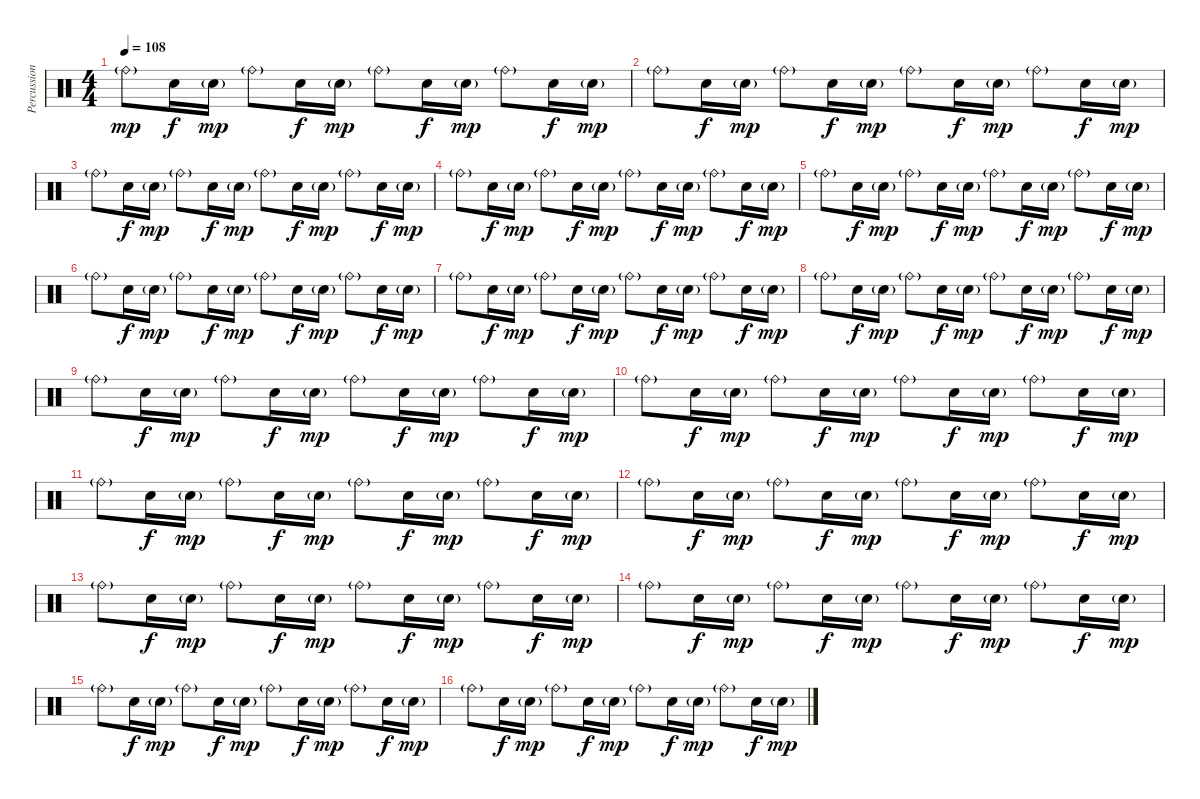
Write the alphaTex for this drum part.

\track ("Percussioni" "Percussion") {instrument percussion}
\staff {score}
\articulation defaults
\ts (4 4)
\tempo 108
\clef neutral
\ks c "Ride (bell)"{g}.8{dy mp} "Snare (hit) 2".16{dy f} "Snare (hit) 2"{g}.16{dy mp} "Ride (bell)"{g}.8 "Snare (hit) 2".16{dy f} "Snare (hit) 2"{g}.16{dy mp} "Ride (bell)"{g}.8 "Snare (hit) 2".16{dy f} "Snare (hit) 2"{g}.16{dy mp} "Ride (bell)"{g}.8 "Snare (hit) 2".16{dy f} "Snare (hit) 2"{g}.16{dy mp}
|
"Ride (bell)"{g}.8 "Snare (hit) 2".16{dy f} "Snare (hit) 2"{g}.16{dy mp} "Ride (bell)"{g}.8 "Snare (hit) 2".16{dy f} "Snare (hit) 2"{g}.16{dy mp} "Ride (bell)"{g}.8 "Snare (hit) 2".16{dy f} "Snare (hit) 2"{g}.16{dy mp} "Ride (bell)"{g}.8 "Snare (hit) 2".16{dy f} "Snare (hit) 2"{g}.16{dy mp} |
"Ride (bell)"{g}.8 "Snare (hit) 2".16{dy f} "Snare (hit) 2"{g}.16{dy mp} "Ride (bell)"{g}.8 "Snare (hit) 2".16{dy f} "Snare (hit) 2"{g}.16{dy mp} "Ride (bell)"{g}.8 "Snare (hit) 2".16{dy f} "Snare (hit) 2"{g}.16{dy mp} "Ride (bell)"{g}.8 "Snare (hit) 2".16{dy f} "Snare (hit) 2"{g}.16{dy mp} |
"Ride (bell)"{g}.8 "Snare (hit) 2".16{dy f} "Snare (hit) 2"{g}.16{dy mp} "Ride (bell)"{g}.8 "Snare (hit) 2".16{dy f} "Snare (hit) 2"{g}.16{dy mp} "Ride (bell)"{g}.8 "Snare (hit) 2".16{dy f} "Snare (hit) 2"{g}.16{dy mp} "Ride (bell)"{g}.8 "Snare (hit) 2".16{dy f} "Snare (hit) 2"{g}.16{dy mp} |
"Ride (bell)"{g}.8 "Snare (hit) 2".16{dy f} "Snare (hit) 2"{g}.16{dy mp} "Ride (bell)"{g}.8 "Snare (hit) 2".16{dy f} "Snare (hit) 2"{g}.16{dy mp} "Ride (bell)"{g}.8 "Snare (hit) 2".16{dy f} "Snare (hit) 2"{g}.16{dy mp} "Ride (bell)"{g}.8 "Snare (hit) 2".16{dy f} "Snare (hit) 2"{g}.16{dy mp} |
"Ride (bell)"{g}.8 "Snare (hit) 2".16{dy f} "Snare (hit) 2"{g}.16{dy mp} "Ride (bell)"{g}.8 "Snare (hit) 2".16{dy f} "Snare (hit) 2"{g}.16{dy mp} "Ride (bell)"{g}.8 "Snare (hit) 2".16{dy f} "Snare (hit) 2"{g}.16{dy mp} "Ride (bell)"{g}.8 "Snare (hit) 2".16{dy f} "Snare (hit) 2"{g}.16{dy mp} |
"Ride (bell)"{g}.8 "Snare (hit) 2".16{dy f} "Snare (hit) 2"{g}.16{dy mp} "Ride (bell)"{g}.8 "Snare (hit) 2".16{dy f} "Snare (hit) 2"{g}.16{dy mp} "Ride (bell)"{g}.8 "Snare (hit) 2".16{dy f} "Snare (hit) 2"{g}.16{dy mp} "Ride (bell)"{g}.8 "Snare (hit) 2".16{dy f} "Snare (hit) 2"{g}.16{dy mp} |
"Ride (bell)"{g}.8 "Snare (hit) 2".16{dy f} "Snare (hit) 2"{g}.16{dy mp} "Ride (bell)"{g}.8 "Snare (hit) 2".16{dy f} "Snare (hit) 2"{g}.16{dy mp} "Ride (bell)"{g}.8 "Snare (hit) 2".16{dy f} "Snare (hit) 2"{g}.16{dy mp} "Ride (bell)"{g}.8 "Snare (hit) 2".16{dy f} "Snare (hit) 2"{g}.16{dy mp} |
"Ride (bell)"{g}.8 "Snare (hit) 2".16{dy f} "Snare (hit) 2"{g}.16{dy mp} "Ride (bell)"{g}.8 "Snare (hit) 2".16{dy f} "Snare (hit) 2"{g}.16{dy mp} "Ride (bell)"{g}.8 "Snare (hit) 2".16{dy f} "Snare (hit) 2"{g}.16{dy mp} "Ride (bell)"{g}.8 "Snare (hit) 2".16{dy f} "Snare (hit) 2"{g}.16{dy mp} |
"Ride (bell)"{g}.8 "Snare (hit) 2".16{dy f} "Snare (hit) 2"{g}.16{dy mp} "Ride (bell)"{g}.8 "Snare (hit) 2".16{dy f} "Snare (hit) 2"{g}.16{dy mp} "Ride (bell)"{g}.8 "Snare (hit) 2".16{dy f} "Snare (hit) 2"{g}.16{dy mp} "Ride (bell)"{g}.8 "Snare (hit) 2".16{dy f} "Snare (hit) 2"{g}.16{dy mp} |
"Ride (bell)"{g}.8 "Snare (hit) 2".16{dy f} "Snare (hit) 2"{g}.16{dy mp} "Ride (bell)"{g}.8 "Snare (hit) 2".16{dy f} "Snare (hit) 2"{g}.16{dy mp} "Ride (bell)"{g}.8 "Snare (hit) 2".16{dy f} "Snare (hit) 2"{g}.16{dy mp} "Ride (bell)"{g}.8 "Snare (hit) 2".16{dy f} "Snare (hit) 2"{g}.16{dy mp} |
"Ride (bell)"{g}.8 "Snare (hit) 2".16{dy f} "Snare (hit) 2"{g}.16{dy mp} "Ride (bell)"{g}.8 "Snare (hit) 2".16{dy f} "Snare (hit) 2"{g}.16{dy mp} "Ride (bell)"{g}.8 "Snare (hit) 2".16{dy f} "Snare (hit) 2"{g}.16{dy mp} "Ride (bell)"{g}.8 "Snare (hit) 2".16{dy f} "Snare (hit) 2"{g}.16{dy mp} |
"Ride (bell)"{g}.8 "Snare (hit) 2".16{dy f} "Snare (hit) 2"{g}.16{dy mp} "Ride (bell)"{g}.8 "Snare (hit) 2".16{dy f} "Snare (hit) 2"{g}.16{dy mp} "Ride (bell)"{g}.8 "Snare (hit) 2".16{dy f} "Snare (hit) 2"{g}.16{dy mp} "Ride (bell)"{g}.8 "Snare (hit) 2".16{dy f} "Snare (hit) 2"{g}.16{dy mp} |
"Ride (bell)"{g}.8 "Snare (hit) 2".16{dy f} "Snare (hit) 2"{g}.16{dy mp} "Ride (bell)"{g}.8 "Snare (hit) 2".16{dy f} "Snare (hit) 2"{g}.16{dy mp} "Ride (bell)"{g}.8 "Snare (hit) 2".16{dy f} "Snare (hit) 2"{g}.16{dy mp} "Ride (bell)"{g}.8 "Snare (hit) 2".16{dy f} "Snare (hit) 2"{g}.16{dy mp} |
"Ride (bell)"{g}.8 "Snare (hit) 2".16{dy f} "Snare (hit) 2"{g}.16{dy mp} "Ride (bell)"{g}.8 "Snare (hit) 2".16{dy f} "Snare (hit) 2"{g}.16{dy mp} "Ride (bell)"{g}.8 "Snare (hit) 2".16{dy f} "Snare (hit) 2"{g}.16{dy mp} "Ride (bell)"{g}.8 "Snare (hit) 2".16{dy f} "Snare (hit) 2"{g}.16{dy mp} |
"Ride (bell)"{g}.8 "Snare (hit) 2".16{dy f} "Snare (hit) 2"{g}.16{dy mp} "Ride (bell)"{g}.8 "Snare (hit) 2".16{dy f} "Snare (hit) 2"{g}.16{dy mp} "Ride (bell)"{g}.8 "Snare (hit) 2".16{dy f} "Snare (hit) 2"{g}.16{dy mp} "Ride (bell)"{g}.8 "Snare (hit) 2".16{dy f} "Snare (hit) 2"{g}.16{dy mp}
